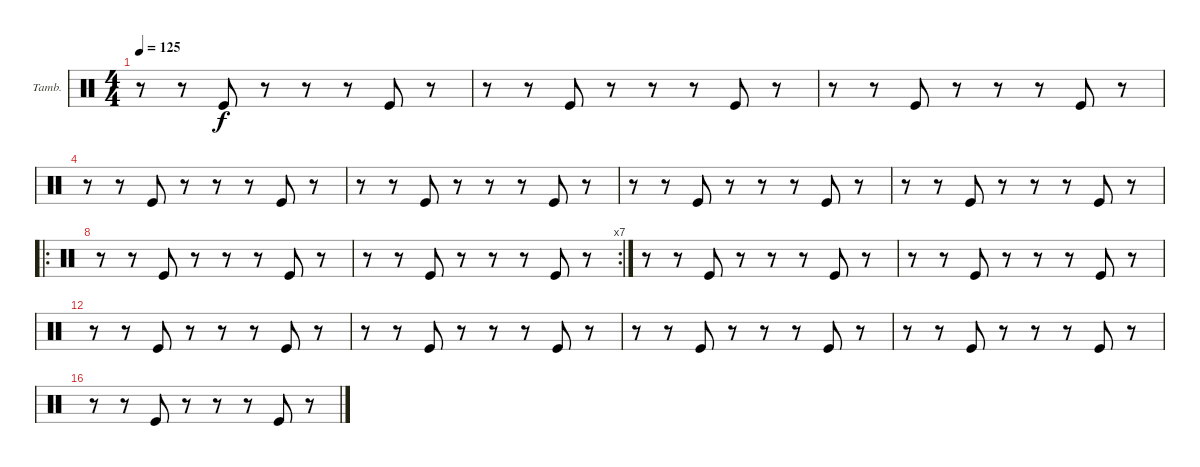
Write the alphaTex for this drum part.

\bracketExtendMode nobrackets
\firstSystemTrackNameOrientation horizontal
\otherSystemsTrackNameOrientation horizontal
\defaultBarNumberDisplay FirstOfSystem
\track ("Tambourine" "Tamb.") {instrument percussion}
\staff {score}
\articulation defaults
\ts (4 4)
\tempo 125
\clef neutral
\ks c
r.8{dy f} r.8 "Kick (hit)".8 r.8 r.8 r.8 "Kick (hit)".8 r.8 |
r.8 r.8 "Kick (hit)".8 r.8 r.8 r.8 "Kick (hit)".8 r.8 |
r.8 r.8 "Kick (hit)".8 r.8 r.8 r.8 "Kick (hit)".8 r.8 |
r.8 r.8 "Kick (hit)".8 r.8 r.8 r.8 "Kick (hit)".8 r.8 |
r.8 r.8 "Kick (hit)".8 r.8 r.8 r.8 "Kick (hit)".8 r.8 |
r.8 r.8 "Kick (hit)".8 r.8 r.8 r.8 "Kick (hit)".8 r.8 |
r.8 r.8 "Kick (hit)".8 r.8 r.8 r.8 "Kick (hit)".8 r.8 |
\ro
r.8 r.8 "Kick (hit)".8 r.8 r.8 r.8 "Kick (hit)".8 r.8 |
\rc 7
r.8 r.8 "Kick (hit)".8 r.8 r.8 r.8 "Kick (hit)".8 r.8 |
r.8 r.8 "Kick (hit)".8 r.8 r.8 r.8 "Kick (hit)".8 r.8 |
r.8 r.8 "Kick (hit)".8 r.8 r.8 r.8 "Kick (hit)".8 r.8 |
r.8 r.8 "Kick (hit)".8 r.8 r.8 r.8 "Kick (hit)".8 r.8 |
r.8 r.8 "Kick (hit)".8 r.8 r.8 r.8 "Kick (hit)".8 r.8 |
r.8 r.8 "Kick (hit)".8 r.8 r.8 r.8 "Kick (hit)".8 r.8 |
r.8 r.8 "Kick (hit)".8 r.8 r.8 r.8 "Kick (hit)".8 r.8 |
r.8 r.8 "Kick (hit)".8 r.8 r.8 r.8 "Kick (hit)".8 r.8
